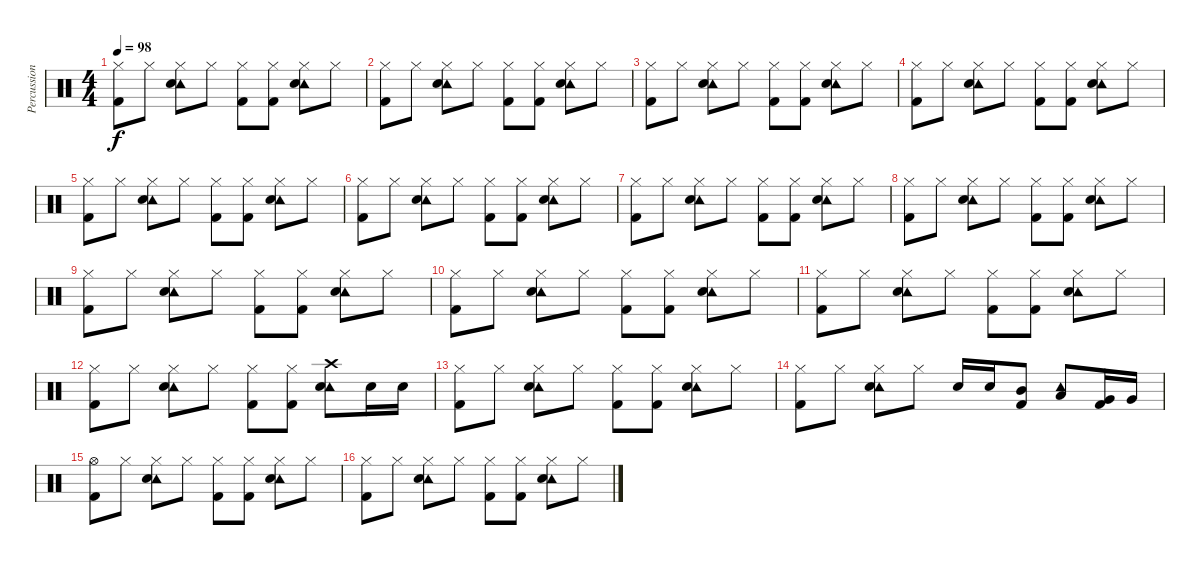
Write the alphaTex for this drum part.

\track ("Percussion" "Percussion") {instrument percussion}
\staff {score}
\articulation defaults
\ts (4 4)
\tempo 98
\clef neutral
\ks c
("Hi-Hat (closed)" "Kick (hit) 2").8{dy f} "Hi-Hat (closed)".8 ("Tambourine (hit)" "Hi-Hat (closed)" "Snare (hit) 2").8 "Hi-Hat (closed)".8 ("Hi-Hat (closed)" "Kick (hit) 2").8 ("Hi-Hat (closed)" "Kick (hit) 2").8 ("Tambourine (hit)" "Hi-Hat (closed)" "Snare (hit) 2").8 "Hi-Hat (closed)".8 |
("Hi-Hat (closed)" "Kick (hit) 2").8 "Hi-Hat (closed)".8 ("Tambourine (hit)" "Hi-Hat (closed)" "Snare (hit) 2").8 "Hi-Hat (closed)".8 ("Hi-Hat (closed)" "Kick (hit) 2").8 ("Hi-Hat (closed)" "Kick (hit) 2").8 ("Tambourine (hit)" "Hi-Hat (closed)" "Snare (hit) 2").8 "Hi-Hat (closed)".8 |
("Hi-Hat (closed)" "Kick (hit) 2").8 "Hi-Hat (closed)".8 ("Tambourine (hit)" "Hi-Hat (closed)" "Snare (hit) 2").8 "Hi-Hat (closed)".8 ("Hi-Hat (closed)" "Kick (hit) 2").8 ("Hi-Hat (closed)" "Kick (hit) 2").8 ("Tambourine (hit)" "Hi-Hat (closed)" "Snare (hit) 2").8 "Hi-Hat (closed)".8 |
("Hi-Hat (closed)" "Kick (hit) 2").8 "Hi-Hat (closed)".8 ("Tambourine (hit)" "Hi-Hat (closed)" "Snare (hit) 2").8 "Hi-Hat (closed)".8 ("Hi-Hat (closed)" "Kick (hit) 2").8 ("Hi-Hat (closed)" "Kick (hit) 2").8 ("Tambourine (hit)" "Hi-Hat (closed)" "Snare (hit) 2").8 "Hi-Hat (closed)".8 |
("Hi-Hat (closed)" "Kick (hit) 2").8 "Hi-Hat (closed)".8 ("Tambourine (hit)" "Hi-Hat (closed)" "Snare (hit) 2").8 "Hi-Hat (closed)".8 ("Hi-Hat (closed)" "Kick (hit) 2").8 ("Hi-Hat (closed)" "Kick (hit) 2").8 ("Tambourine (hit)" "Hi-Hat (closed)" "Snare (hit) 2").8 "Hi-Hat (closed)".8 |
("Hi-Hat (closed)" "Kick (hit) 2").8 "Hi-Hat (closed)".8 ("Tambourine (hit)" "Hi-Hat (closed)" "Snare (hit) 2").8 "Hi-Hat (closed)".8 ("Hi-Hat (closed)" "Kick (hit) 2").8 ("Hi-Hat (closed)" "Kick (hit) 2").8 ("Tambourine (hit)" "Hi-Hat (closed)" "Snare (hit) 2").8 "Hi-Hat (closed)".8 |
("Hi-Hat (closed)" "Kick (hit) 2").8 "Hi-Hat (closed)".8 ("Tambourine (hit)" "Hi-Hat (closed)" "Snare (hit) 2").8 "Hi-Hat (closed)".8 ("Hi-Hat (closed)" "Kick (hit) 2").8 ("Hi-Hat (closed)" "Kick (hit) 2").8 ("Tambourine (hit)" "Hi-Hat (closed)" "Snare (hit) 2").8 "Hi-Hat (closed)".8 |
("Hi-Hat (closed)" "Kick (hit) 2").8 "Hi-Hat (closed)".8 ("Tambourine (hit)" "Hi-Hat (closed)" "Snare (hit) 2").8 "Hi-Hat (closed)".8 ("Hi-Hat (closed)" "Kick (hit) 2").8 ("Hi-Hat (closed)" "Kick (hit) 2").8 ("Tambourine (hit)" "Hi-Hat (closed)" "Snare (hit) 2").8 "Hi-Hat (closed)".8 |
("Hi-Hat (closed)" "Kick (hit) 2").8 "Hi-Hat (closed)".8 ("Tambourine (hit)" "Hi-Hat (closed)" "Snare (hit) 2").8 "Hi-Hat (closed)".8 ("Hi-Hat (closed)" "Kick (hit) 2").8 ("Hi-Hat (closed)" "Kick (hit) 2").8 ("Tambourine (hit)" "Hi-Hat (closed)" "Snare (hit) 2").8 "Hi-Hat (closed)".8 |
("Hi-Hat (closed)" "Kick (hit) 2").8 "Hi-Hat (closed)".8 ("Tambourine (hit)" "Hi-Hat (closed)" "Snare (hit) 2").8 "Hi-Hat (closed)".8 ("Hi-Hat (closed)" "Kick (hit) 2").8 ("Hi-Hat (closed)" "Kick (hit) 2").8 ("Tambourine (hit)" "Hi-Hat (closed)" "Snare (hit) 2").8 "Hi-Hat (closed)".8 |
("Hi-Hat (closed)" "Kick (hit) 2").8 "Hi-Hat (closed)".8 ("Tambourine (hit)" "Hi-Hat (closed)" "Snare (hit) 2").8 "Hi-Hat (closed)".8 ("Hi-Hat (closed)" "Kick (hit) 2").8 ("Hi-Hat (closed)" "Kick (hit) 2").8 ("Tambourine (hit)" "Hi-Hat (closed)" "Snare (hit) 2").8 "Hi-Hat (closed)".8 |
("Hi-Hat (closed)" "Kick (hit) 2").8 "Hi-Hat (closed)".8 ("Tambourine (hit)" "Hi-Hat (closed)" "Snare (hit) 2").8 "Hi-Hat (closed)".8 ("Hi-Hat (closed)" "Kick (hit) 2").8 ("Hi-Hat (closed)" "Kick (hit) 2").8 ("Tambourine (hit)" "Crash high (hit)" "Snare (hit) 2").8 "Snare (hit) 2".16 "Snare (hit) 2".16 |
("Hi-Hat (closed)" "Kick (hit) 2").8 "Hi-Hat (closed)".8 ("Tambourine (hit)" "Hi-Hat (closed)" "Snare (hit) 2").8 "Hi-Hat (closed)".8 ("Hi-Hat (closed)" "Kick (hit) 2").8 ("Hi-Hat (closed)" "Kick (hit) 2").8 ("Tambourine (hit)" "Hi-Hat (closed)" "Snare (hit) 2").8 "Hi-Hat (closed)".8 |
("Hi-Hat (closed)" "Kick (hit) 2").8 "Hi-Hat (closed)".8 ("Tambourine (hit)" "Hi-Hat (closed)" "Snare (hit) 2").8 "Hi-Hat (closed)".8 "Snare (hit) 2".16 "Snare (hit) 2".16 ("Mid Tom (hit)" "Kick (hit) 2").8 ("Tambourine (hit)" "Low Tom (hit)").8 ("Very Low Tom (hit)" "Kick (hit) 2").16 "Very Low Tom (hit)".16 |
("Hi-Hat (open)" "Kick (hit) 2").8 "Hi-Hat (closed)".8 ("Tambourine (hit)" "Hi-Hat (closed)" "Snare (hit) 2").8 "Hi-Hat (closed)".8 ("Hi-Hat (closed)" "Kick (hit) 2").8 ("Hi-Hat (closed)" "Kick (hit) 2").8 ("Tambourine (hit)" "Hi-Hat (closed)" "Snare (hit) 2").8 "Hi-Hat (closed)".8 |
("Hi-Hat (closed)" "Kick (hit) 2").8 "Hi-Hat (closed)".8 ("Tambourine (hit)" "Hi-Hat (closed)" "Snare (hit) 2").8 "Hi-Hat (closed)".8 ("Hi-Hat (closed)" "Kick (hit) 2").8 ("Hi-Hat (closed)" "Kick (hit) 2").8 ("Tambourine (hit)" "Hi-Hat (closed)" "Snare (hit) 2").8 "Hi-Hat (closed)".8
